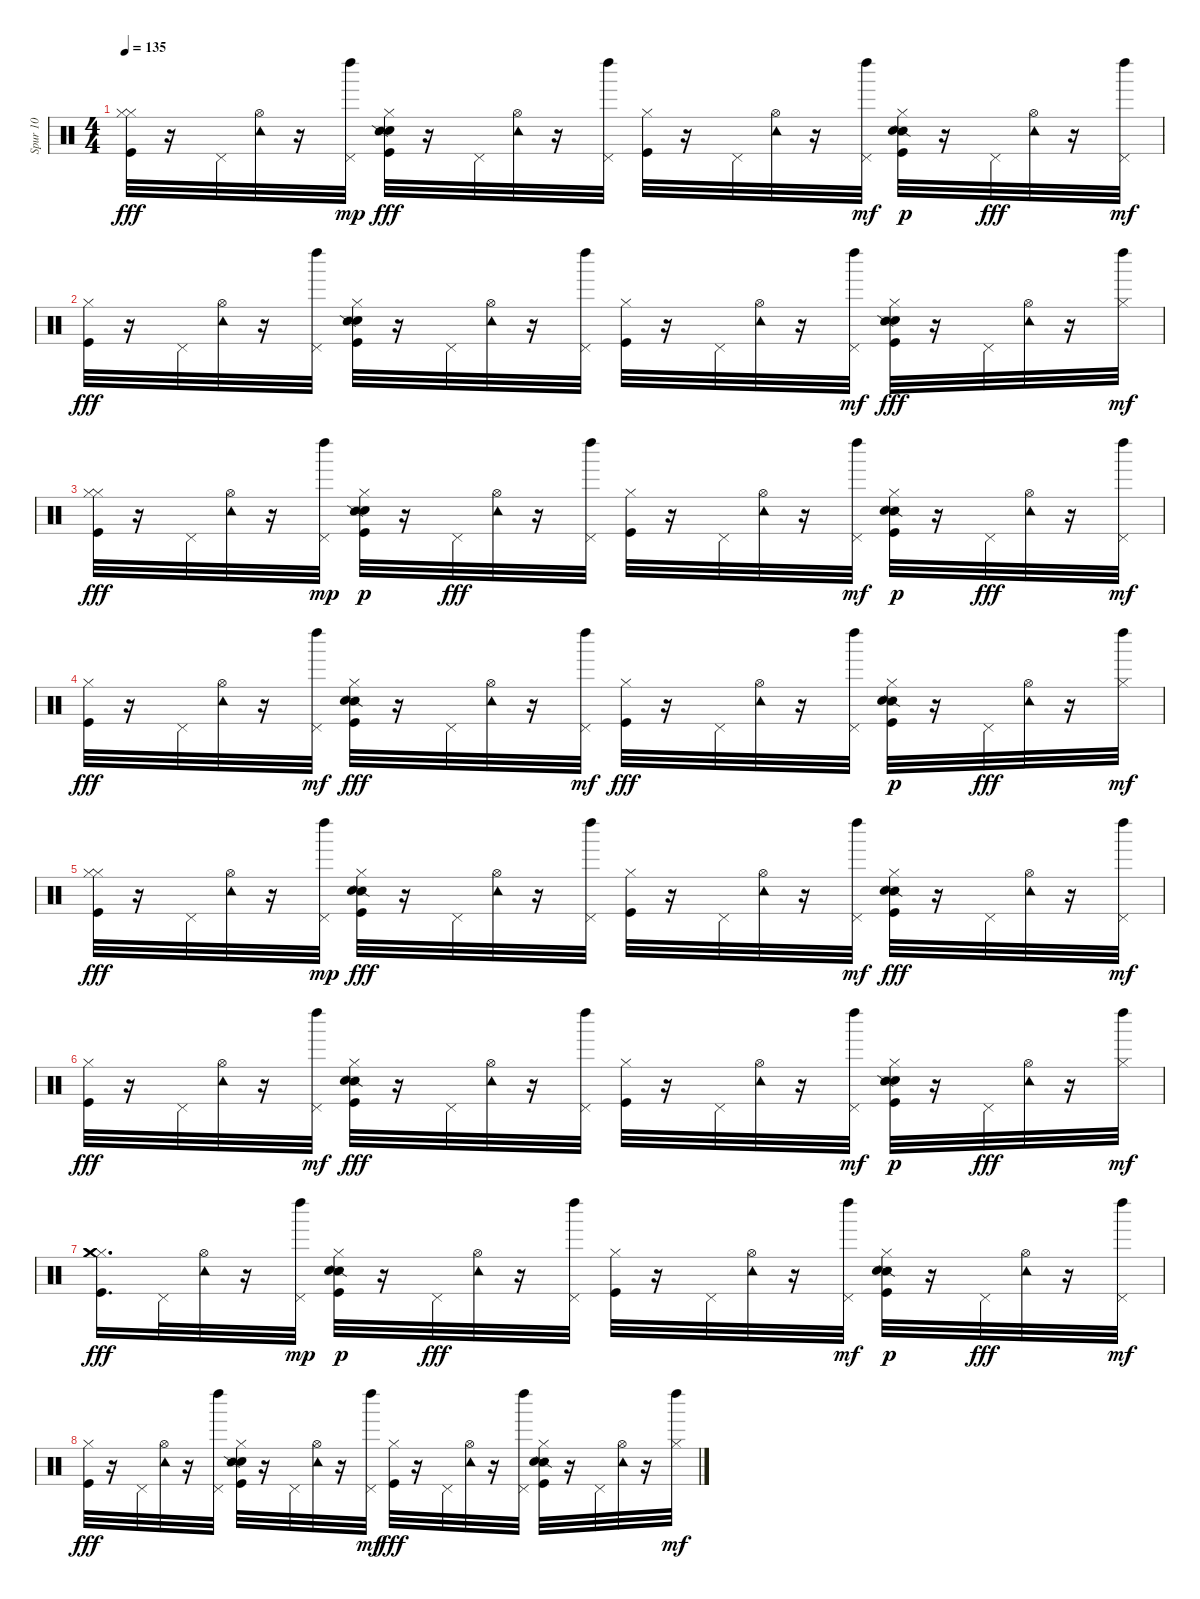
\track ("Spur 10" "Spur 10") {instrument percussion}
\staff {score}
\articulation defaults
\ts (4 4)
\tempo 135
\clef neutral
\ks c
("Kick (hit)" "Hi-Hat (closed)" "Hi-Hat (closed)").32{dy fff} r.16 "Pedal Hi-Hat (hit)".32 ("Hi-Hat (open)" "Tambourine (hit)").32 r.16 ("Pedal Hi-Hat (hit)" "Left Maraca (hit)").32{dy mp} ("Hand Clap (hit)" "Snare (side stick) 2" "Hi-Hat (closed)" "Kick (hit)").32{dy fff} r.16 "Pedal Hi-Hat (hit)".32 ("Tambourine (hit)" "Hi-Hat (open)").32 r.16 ("Left Maraca (hit)" "Pedal Hi-Hat (hit)").32 ("Kick (hit)" "Hi-Hat (closed)").32 r.16 "Pedal Hi-Hat (hit)".32 ("Hi-Hat (open)" "Tambourine (hit)").32 r.16 ("Left Maraca (hit)" "Pedal Hi-Hat (hit)").32{dy mf} ("Kick (hit)" "Hi-Hat (closed)" "Snare (side stick) 2" "Hand Clap (hit)").32{dy p} r.16 "Pedal Hi-Hat (hit)".32{dy fff} ("Hi-Hat (open)" "Tambourine (hit)").32 r.16 ("Left Maraca (hit)" "Pedal Hi-Hat (hit)").32{dy mf} |
("Hi-Hat (closed)" "Kick (hit)").32{dy fff} r.16 "Pedal Hi-Hat (hit)".32 ("Tambourine (hit)" "Hi-Hat (open)").32 r.16 ("Left Maraca (hit)" "Pedal Hi-Hat (hit)").32 ("Hand Clap (hit)" "Snare (side stick) 2" "Hi-Hat (closed)" "Kick (hit)").32 r.16 "Pedal Hi-Hat (hit)".32 ("Hi-Hat (open)" "Tambourine (hit)").32 r.16 ("Left Maraca (hit)" "Pedal Hi-Hat (hit)").32 ("Kick (hit)" "Hi-Hat (closed)").32 r.16 "Pedal Hi-Hat (hit)".32 ("Hi-Hat (open)" "Tambourine (hit)").32 r.16 ("Pedal Hi-Hat (hit)" "Left Maraca (hit)").32{dy mf} ("Hand Clap (hit)" "Kick (hit)" "Snare (side stick) 2" "Hi-Hat (closed)").32{dy fff} r.16 "Pedal Hi-Hat (hit)".32 ("Hi-Hat (open)" "Tambourine (hit)").32 r.16 ("Hi-Hat (closed)" "Left Maraca (hit)").32{dy mf} |
("Hi-Hat (closed)" "Kick (hit)" "Hi-Hat (closed)").32{dy fff} r.16 "Pedal Hi-Hat (hit)".32 ("Tambourine (hit)" "Hi-Hat (open)").32 r.16 ("Pedal Hi-Hat (hit)" "Left Maraca (hit)").32{dy mp} ("Hi-Hat (closed)" "Kick (hit)" "Hand Clap (hit)" "Snare (side stick) 2").32{dy p} r.16 "Pedal Hi-Hat (hit)".32{dy fff} ("Hi-Hat (open)" "Tambourine (hit)").32 r.16 ("Left Maraca (hit)" "Pedal Hi-Hat (hit)").32 ("Kick (hit)" "Hi-Hat (closed)").32 r.16 "Pedal Hi-Hat (hit)".32 ("Tambourine (hit)" "Hi-Hat (open)").32 r.16 ("Left Maraca (hit)" "Pedal Hi-Hat (hit)").32{dy mf} ("Snare (side stick) 2" "Kick (hit)" "Hi-Hat (closed)" "Hand Clap (hit)").32{dy p} r.16 "Pedal Hi-Hat (hit)".32{dy fff} ("Hi-Hat (open)" "Tambourine (hit)").32 r.16 ("Left Maraca (hit)" "Pedal Hi-Hat (hit)").32{dy mf} |
("Kick (hit)" "Hi-Hat (closed)").32{dy fff} r.16 "Pedal Hi-Hat (hit)".32 ("Hi-Hat (open)" "Tambourine (hit)").32 r.16 ("Pedal Hi-Hat (hit)" "Left Maraca (hit)").32{dy mf} ("Snare (side stick) 2" "Hi-Hat (closed)" "Hand Clap (hit)" "Kick (hit)").32{dy fff} r.16 "Pedal Hi-Hat (hit)".32 ("Hi-Hat (open)" "Tambourine (hit)").32 r.16 ("Pedal Hi-Hat (hit)" "Left Maraca (hit)").32{dy mf} ("Kick (hit)" "Hi-Hat (closed)").32{dy fff} r.16 "Pedal Hi-Hat (hit)".32 ("Tambourine (hit)" "Hi-Hat (open)").32 r.16 ("Left Maraca (hit)" "Pedal Hi-Hat (hit)").32 ("Kick (hit)" "Snare (side stick) 2" "Hi-Hat (closed)" "Hand Clap (hit)").32{dy p} r.16 "Pedal Hi-Hat (hit)".32{dy fff} ("Hi-Hat (open)" "Tambourine (hit)").32 r.16 ("Left Maraca (hit)" "Hi-Hat (closed)").32{dy mf} |
("Hi-Hat (closed)" "Hi-Hat (closed)" "Kick (hit)").32{dy fff} r.16 "Pedal Hi-Hat (hit)".32 ("Hi-Hat (open)" "Tambourine (hit)").32 r.16 ("Pedal Hi-Hat (hit)" "Left Maraca (hit)").32{dy mp} ("Snare (side stick) 2" "Kick (hit)" "Hand Clap (hit)" "Hi-Hat (closed)").32{dy fff} r.16 "Pedal Hi-Hat (hit)".32 ("Tambourine (hit)" "Hi-Hat (open)").32 r.16 ("Left Maraca (hit)" "Pedal Hi-Hat (hit)").32 ("Hi-Hat (closed)" "Kick (hit)").32 r.16 "Pedal Hi-Hat (hit)".32 ("Tambourine (hit)" "Hi-Hat (open)").32 r.16 ("Left Maraca (hit)" "Pedal Hi-Hat (hit)").32{dy mf} ("Snare (side stick) 2" "Hand Clap (hit)" "Hi-Hat (closed)" "Kick (hit)").32{dy fff} r.16 "Pedal Hi-Hat (hit)".32 ("Tambourine (hit)" "Hi-Hat (open)").32 r.16 ("Pedal Hi-Hat (hit)" "Left Maraca (hit)").32{dy mf} |
("Hi-Hat (closed)" "Kick (hit)").32{dy fff} r.16 "Pedal Hi-Hat (hit)".32 ("Hi-Hat (open)" "Tambourine (hit)").32 r.16 ("Pedal Hi-Hat (hit)" "Left Maraca (hit)").32{dy mf} ("Hi-Hat (closed)" "Snare (side stick) 2" "Hand Clap (hit)" "Kick (hit)").32{dy fff} r.16 "Pedal Hi-Hat (hit)".32 ("Tambourine (hit)" "Hi-Hat (open)").32 r.16 ("Left Maraca (hit)" "Pedal Hi-Hat (hit)").32 ("Hi-Hat (closed)" "Kick (hit)").32 r.16 "Pedal Hi-Hat (hit)".32 ("Hi-Hat (open)" "Tambourine (hit)").32 r.16 ("Pedal Hi-Hat (hit)" "Left Maraca (hit)").32{dy mf} ("Kick (hit)" "Hi-Hat (closed)" "Hand Clap (hit)" "Snare (side stick) 2").32{dy p} r.16 "Pedal Hi-Hat (hit)".32{dy fff} ("Hi-Hat (open)" "Tambourine (hit)").32 r.16 ("Hi-Hat (closed)" "Left Maraca (hit)").32{dy mf} |
("Hi-Hat (closed)" "Crash medium (hit)" "Kick (hit)" "Crash medium (hit)").16{d dy fff} "Pedal Hi-Hat (hit)".32 ("Hi-Hat (open)" "Tambourine (hit)").32 r.16 ("Pedal Hi-Hat (hit)" "Left Maraca (hit)").32{dy mp} ("Snare (side stick) 2" "Kick (hit)" "Hi-Hat (closed)" "Hand Clap (hit)").32{dy p} r.16 "Pedal Hi-Hat (hit)".32{dy fff} ("Tambourine (hit)" "Hi-Hat (open)").32 r.16 ("Left Maraca (hit)" "Pedal Hi-Hat (hit)").32 ("Kick (hit)" "Hi-Hat (closed)").32 r.16 "Pedal Hi-Hat (hit)".32 ("Tambourine (hit)" "Hi-Hat (open)").32 r.16 ("Left Maraca (hit)" "Pedal Hi-Hat (hit)").32{dy mf} ("Snare (side stick) 2" "Hi-Hat (closed)" "Kick (hit)" "Hand Clap (hit)").32{dy p} r.16 "Pedal Hi-Hat (hit)".32{dy fff} ("Hi-Hat (open)" "Tambourine (hit)").32 r.16 ("Pedal Hi-Hat (hit)" "Left Maraca (hit)").32{dy mf} |
("Hi-Hat (closed)" "Kick (hit)").32{dy fff} r.16 "Pedal Hi-Hat (hit)".32 ("Hi-Hat (open)" "Tambourine (hit)").32 r.16 ("Left Maraca (hit)" "Pedal Hi-Hat (hit)").32 ("Hand Clap (hit)" "Snare (side stick) 2" "Hi-Hat (closed)" "Kick (hit)").32 r.16 "Pedal Hi-Hat (hit)".32 ("Hi-Hat (open)" "Tambourine (hit)").32 r.16 ("Pedal Hi-Hat (hit)" "Left Maraca (hit)").32{dy mf} ("Kick (hit)" "Hi-Hat (closed)").32{dy fff} r.16 "Pedal Hi-Hat (hit)".32 ("Hi-Hat (open)" "Tambourine (hit)").32 r.16 ("Left Maraca (hit)" "Pedal Hi-Hat (hit)").32 ("Snare (side stick) 2" "Kick (hit)" "Hand Clap (hit)" "Hi-Hat (closed)").32 r.16 "Pedal Hi-Hat (hit)".32 ("Hi-Hat (open)" "Tambourine (hit)").32 r.16 ("Hi-Hat (closed)" "Left Maraca (hit)").32{dy mf}
